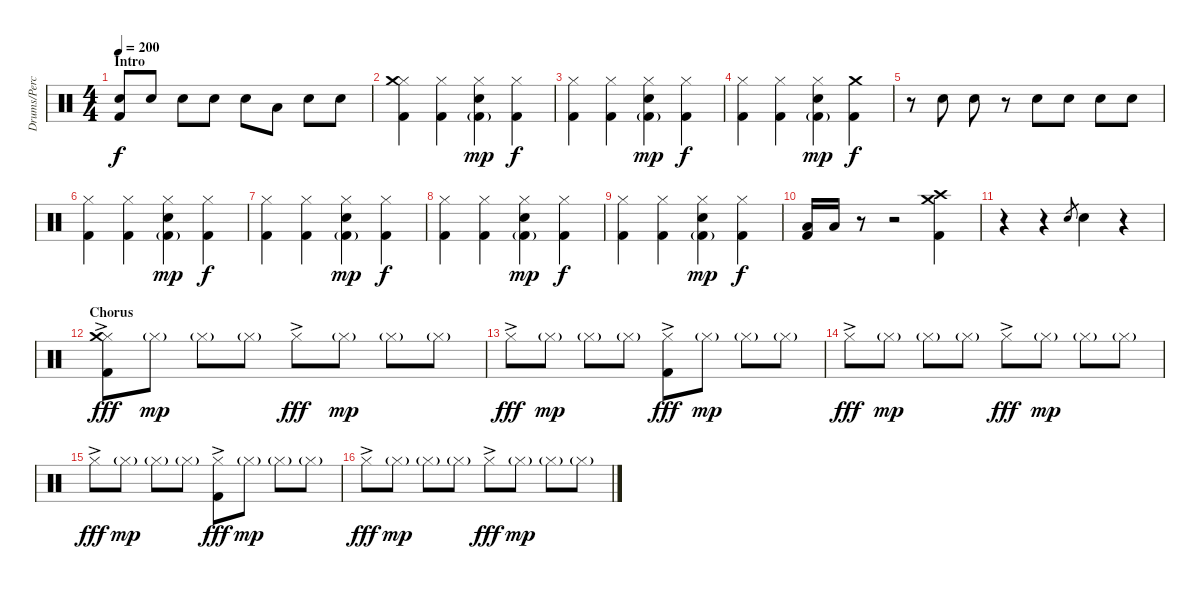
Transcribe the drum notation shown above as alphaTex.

\track ("Drums/Percussion" "Drums/Perc") {instrument percussion}
\staff {score}
\articulation defaults
\ts (4 4)
\section ("" "Intro")
\tempo 200
\clef neutral
\ks c
("Kick (hit) 2" "Snare (hit) 2").8{dy f} "Snare (hit) 2".8 "Snare (hit) 2".8 "Snare (hit) 2".8 "Snare (hit) 2".8 "Low Tom (hit)".8 "Snare (hit) 2".8 "Snare (hit) 2".8 |
("Kick (hit) 2" "Hi-Hat (closed)" "Crash medium (hit)").4 ("Kick (hit) 2" "Hi-Hat (closed)").4 ("Kick (hit) 2"{g} "Snare (hit) 2" "Hi-Hat (closed)").4{dy mp} ("Kick (hit) 2" "Hi-Hat (closed)").4{dy f} |
("Kick (hit) 2" "Hi-Hat (closed)").4 ("Kick (hit) 2" "Hi-Hat (closed)").4 ("Kick (hit) 2"{g} "Snare (hit) 2" "Hi-Hat (closed)").4{dy mp} ("Kick (hit) 2" "Hi-Hat (closed)").4{dy f} |
("Kick (hit) 2" "Hi-Hat (closed)").4 ("Kick (hit) 2" "Hi-Hat (closed)").4 ("Kick (hit) 2"{g} "Snare (hit) 2" "Hi-Hat (closed)").4{dy mp} ("Kick (hit) 2" "Crash medium (hit)").4{dy f} |
r.8 "Snare (hit) 2".8 "Snare (hit) 2".8 r.8 "Snare (hit) 2".8 "Snare (hit) 2".8 "Snare (hit) 2".8 "Snare (hit) 2".8 |
("Kick (hit) 2" "Hi-Hat (closed)").4 ("Kick (hit) 2" "Hi-Hat (closed)").4 ("Kick (hit) 2"{g} "Snare (hit) 2" "Hi-Hat (closed)").4{dy mp} ("Kick (hit) 2" "Hi-Hat (closed)").4{dy f} |
("Kick (hit) 2" "Hi-Hat (closed)").4 ("Kick (hit) 2" "Hi-Hat (closed)").4 ("Kick (hit) 2"{g} "Snare (hit) 2" "Hi-Hat (closed)").4{dy mp} ("Kick (hit) 2" "Hi-Hat (closed)").4{dy f} |
("Kick (hit) 2" "Hi-Hat (closed)").4 ("Kick (hit) 2" "Hi-Hat (closed)").4 ("Kick (hit) 2"{g} "Snare (hit) 2" "Hi-Hat (closed)").4{dy mp} ("Kick (hit) 2" "Hi-Hat (closed)").4{dy f} |
("Kick (hit) 2" "Hi-Hat (closed)").4 ("Kick (hit) 2" "Hi-Hat (closed)").4 ("Kick (hit) 2"{g} "Snare (hit) 2" "Hi-Hat (closed)").4{dy mp} ("Kick (hit) 2" "Hi-Hat (closed)").4{dy f} |
("Kick (hit) 2" "Low Floor Tom (hit)").16 "Low Floor Tom (hit)".16 r.8 r.2 ("Kick (hit) 2" "Crash high (hit)" "Crash medium (hit)").4 |
r.4 r.4 "Snare (hit) 2".8{gr} "Snare (hit) 2".4 r.4 |
\section ("" "Chorus")
("Kick (hit) 2" "Hi-Hat (closed)"{ac} "Crash medium (hit)").8{dy fff} "Hi-Hat (closed)"{g}.8{dy mp} "Hi-Hat (closed)"{g}.8 "Hi-Hat (closed)"{g}.8 "Hi-Hat (closed)"{ac}.8{dy fff} "Hi-Hat (closed)"{g}.8{dy mp} "Hi-Hat (closed)"{g}.8 "Hi-Hat (closed)"{g}.8 |
"Hi-Hat (closed)"{ac}.8{dy fff} "Hi-Hat (closed)"{g}.8{dy mp} "Hi-Hat (closed)"{g}.8 "Hi-Hat (closed)"{g}.8 ("Kick (hit) 2" "Hi-Hat (closed)"{ac}).8{dy fff} "Hi-Hat (closed)"{g}.8{dy mp} "Hi-Hat (closed)"{g}.8 "Hi-Hat (closed)"{g}.8 |
"Hi-Hat (closed)"{ac}.8{dy fff} "Hi-Hat (closed)"{g}.8{dy mp} "Hi-Hat (closed)"{g}.8 "Hi-Hat (closed)"{g}.8 "Hi-Hat (closed)"{ac}.8{dy fff} "Hi-Hat (closed)"{g}.8{dy mp} "Hi-Hat (closed)"{g}.8 "Hi-Hat (closed)"{g}.8 |
"Hi-Hat (closed)"{ac}.8{dy fff} "Hi-Hat (closed)"{g}.8{dy mp} "Hi-Hat (closed)"{g}.8 "Hi-Hat (closed)"{g}.8 ("Kick (hit) 2" "Hi-Hat (closed)"{ac}).8{dy fff} "Hi-Hat (closed)"{g}.8{dy mp} "Hi-Hat (closed)"{g}.8 "Hi-Hat (closed)"{g}.8 |
"Hi-Hat (closed)"{ac}.8{dy fff} "Hi-Hat (closed)"{g}.8{dy mp} "Hi-Hat (closed)"{g}.8 "Hi-Hat (closed)"{g}.8 "Hi-Hat (closed)"{ac}.8{dy fff} "Hi-Hat (closed)"{g}.8{dy mp} "Hi-Hat (closed)"{g}.8 "Hi-Hat (closed)"{g}.8
